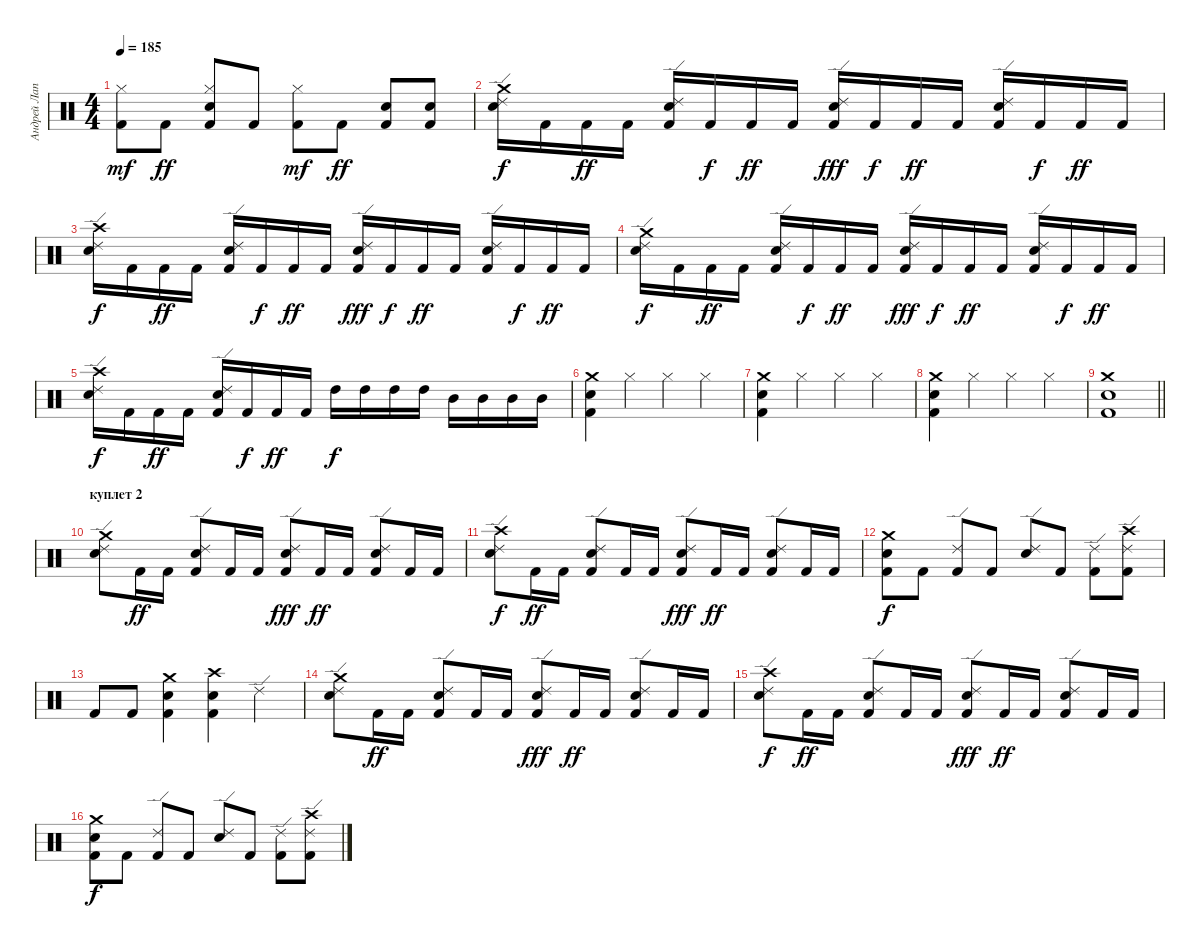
\track ("Андрей Лаптев" "Андрей Лап") {instrument percussion}
\staff {score}
\articulation defaults
\ts (4 4)
\tempo 185
\clef neutral
\ks c
("Kick (hit) 2" "Hi-Hat (closed)").8{dy mf} "Kick (hit) 2".8{dy ff} ("Electric Snare (hit)" "Hi-Hat (closed)" "Kick (hit) 2").8 "Kick (hit) 2".8 ("Kick (hit) 2" "Hi-Hat (closed)").8{dy mf} "Kick (hit) 2".8{dy ff} ("Electric Snare (hit)" "Kick (hit) 2").8 ("Kick (hit) 2" "Electric Snare (hit)").8 |
("Ride (edge) 2" "Crash medium (hit)" "Electric Snare (hit)").16{dy f} "Kick (hit) 2".16 "Kick (hit) 2".16{dy ff} "Kick (hit) 2".16 ("Kick (hit) 2" "Electric Snare (hit)" "Ride (edge) 2").16 "Kick (hit) 2".16{dy f} "Kick (hit) 2".16{dy ff} "Kick (hit) 2".16 ("Kick (hit) 2" "Ride (edge) 2" "Electric Snare (hit)").16{dy fff} "Kick (hit) 2".16{dy f} "Kick (hit) 2".16{dy ff} "Kick (hit) 2".16 ("Ride (edge) 2" "Electric Snare (hit)" "Kick (hit) 2").16 "Kick (hit) 2".16{dy f} "Kick (hit) 2".16{dy ff} "Kick (hit) 2".16 |
("Ride (edge) 2" "Crash high (hit)" "Electric Snare (hit)").16{dy f} "Kick (hit) 2".16 "Kick (hit) 2".16{dy ff} "Kick (hit) 2".16 ("Kick (hit) 2" "Electric Snare (hit)" "Ride (edge) 2").16 "Kick (hit) 2".16{dy f} "Kick (hit) 2".16{dy ff} "Kick (hit) 2".16 ("Kick (hit) 2" "Ride (edge) 2" "Electric Snare (hit)").16{dy fff} "Kick (hit) 2".16{dy f} "Kick (hit) 2".16{dy ff} "Kick (hit) 2".16 ("Ride (edge) 2" "Electric Snare (hit)" "Kick (hit) 2").16 "Kick (hit) 2".16{dy f} "Kick (hit) 2".16{dy ff} "Kick (hit) 2".16 |
("Ride (edge) 2" "Crash medium (hit)" "Electric Snare (hit)").16{dy f} "Kick (hit) 2".16 "Kick (hit) 2".16{dy ff} "Kick (hit) 2".16 ("Kick (hit) 2" "Electric Snare (hit)" "Ride (edge) 2").16 "Kick (hit) 2".16{dy f} "Kick (hit) 2".16{dy ff} "Kick (hit) 2".16 ("Kick (hit) 2" "Ride (edge) 2" "Electric Snare (hit)").16{dy fff} "Kick (hit) 2".16{dy f} "Kick (hit) 2".16{dy ff} "Kick (hit) 2".16 ("Ride (edge) 2" "Electric Snare (hit)" "Kick (hit) 2").16 "Kick (hit) 2".16{dy f} "Kick (hit) 2".16{dy ff} "Kick (hit) 2".16 |
("Ride (edge) 2" "Crash high (hit)" "Electric Snare (hit)").16{dy f} "Kick (hit) 2".16 "Kick (hit) 2".16{dy ff} "Kick (hit) 2".16 ("Kick (hit) 2" "Electric Snare (hit)" "Ride (edge) 2").16 "Kick (hit) 2".16{dy f} "Kick (hit) 2".16{dy ff} "Kick (hit) 2".16 "High Tom (hit)".16{dy f} "High Tom (hit)".16 "High Tom (hit)".16 "High Tom (hit)".16 "Mid Tom (hit)".16 "Mid Tom (hit)".16 "Mid Tom (hit)".16 "Mid Tom (hit)".16 |
("Electric Snare (hit)" "Crash medium (hit)" "Kick (hit) 2").4 "Hi-Hat (closed)".4 "Hi-Hat (closed)".4 "Hi-Hat (closed)".4 |
("Electric Snare (hit)" "Crash medium (hit)" "Kick (hit) 2").4 "Hi-Hat (closed)".4 "Hi-Hat (closed)".4 "Hi-Hat (closed)".4 |
("Electric Snare (hit)" "Crash medium (hit)" "Kick (hit) 2").4 "Hi-Hat (closed)".4 "Hi-Hat (closed)".4 "Hi-Hat (closed)".4 |
\barLineRight lightlight
("Electric Snare (hit)" "Crash medium (hit)" "Kick (hit) 2").1 |
\section ("" "куплет 2")
("Ride (edge) 2" "Crash medium (hit)" "Electric Snare (hit)").8 "Kick (hit) 2".16{dy ff} "Kick (hit) 2".16 ("Kick (hit) 2" "Electric Snare (hit)" "Ride (edge) 2").8 "Kick (hit) 2".16 "Kick (hit) 2".16 ("Kick (hit) 2" "Ride (edge) 2" "Electric Snare (hit)").8{dy fff} "Kick (hit) 2".16{dy ff} "Kick (hit) 2".16 ("Ride (edge) 2" "Electric Snare (hit)" "Kick (hit) 2").8 "Kick (hit) 2".16 "Kick (hit) 2".16 |
("Ride (edge) 2" "Crash high (hit)" "Electric Snare (hit)").8{dy f} "Kick (hit) 2".16{dy ff} "Kick (hit) 2".16 ("Kick (hit) 2" "Electric Snare (hit)" "Ride (edge) 2").8 "Kick (hit) 2".16 "Kick (hit) 2".16 ("Kick (hit) 2" "Ride (edge) 2" "Electric Snare (hit)").8{dy fff} "Kick (hit) 2".16{dy ff} "Kick (hit) 2".16 ("Ride (edge) 2" "Electric Snare (hit)" "Kick (hit) 2").8 "Kick (hit) 2".16 "Kick (hit) 2".16 |
("Crash medium (hit)" "Electric Snare (hit)" "Kick (hit) 2").8{dy f} "Kick (hit) 2".8 ("Kick (hit) 2" "Ride (edge) 2").8 "Kick (hit) 2".8 ("Electric Snare (hit)" "Ride (edge) 2").8 "Kick (hit) 2".8 ("Ride (edge) 2" "Kick (hit) 2").8 ("Ride (edge) 2" "Crash high (hit)" "Kick (hit) 2").8 |
"Kick (hit) 2".8 "Kick (hit) 2".8 ("Kick (hit) 2" "Crash medium (hit)" "Electric Snare (hit)").4 ("Electric Snare (hit)" "Crash high (hit)" "Kick (hit) 2").4 "Ride (edge) 2".4 |
("Ride (edge) 2" "Crash medium (hit)" "Electric Snare (hit)").8 "Kick (hit) 2".16{dy ff} "Kick (hit) 2".16 ("Kick (hit) 2" "Electric Snare (hit)" "Ride (edge) 2").8 "Kick (hit) 2".16 "Kick (hit) 2".16 ("Kick (hit) 2" "Ride (edge) 2" "Electric Snare (hit)").8{dy fff} "Kick (hit) 2".16{dy ff} "Kick (hit) 2".16 ("Ride (edge) 2" "Electric Snare (hit)" "Kick (hit) 2").8 "Kick (hit) 2".16 "Kick (hit) 2".16 |
("Ride (edge) 2" "Crash high (hit)" "Electric Snare (hit)").8{dy f} "Kick (hit) 2".16{dy ff} "Kick (hit) 2".16 ("Kick (hit) 2" "Electric Snare (hit)" "Ride (edge) 2").8 "Kick (hit) 2".16 "Kick (hit) 2".16 ("Kick (hit) 2" "Ride (edge) 2" "Electric Snare (hit)").8{dy fff} "Kick (hit) 2".16{dy ff} "Kick (hit) 2".16 ("Ride (edge) 2" "Electric Snare (hit)" "Kick (hit) 2").8 "Kick (hit) 2".16 "Kick (hit) 2".16 |
("Crash medium (hit)" "Electric Snare (hit)" "Kick (hit) 2").8{dy f} "Kick (hit) 2".8 ("Kick (hit) 2" "Ride (edge) 2").8 "Kick (hit) 2".8 ("Electric Snare (hit)" "Ride (edge) 2").8 "Kick (hit) 2".8 ("Ride (edge) 2" "Kick (hit) 2").8 ("Ride (edge) 2" "Crash high (hit)" "Kick (hit) 2").8
